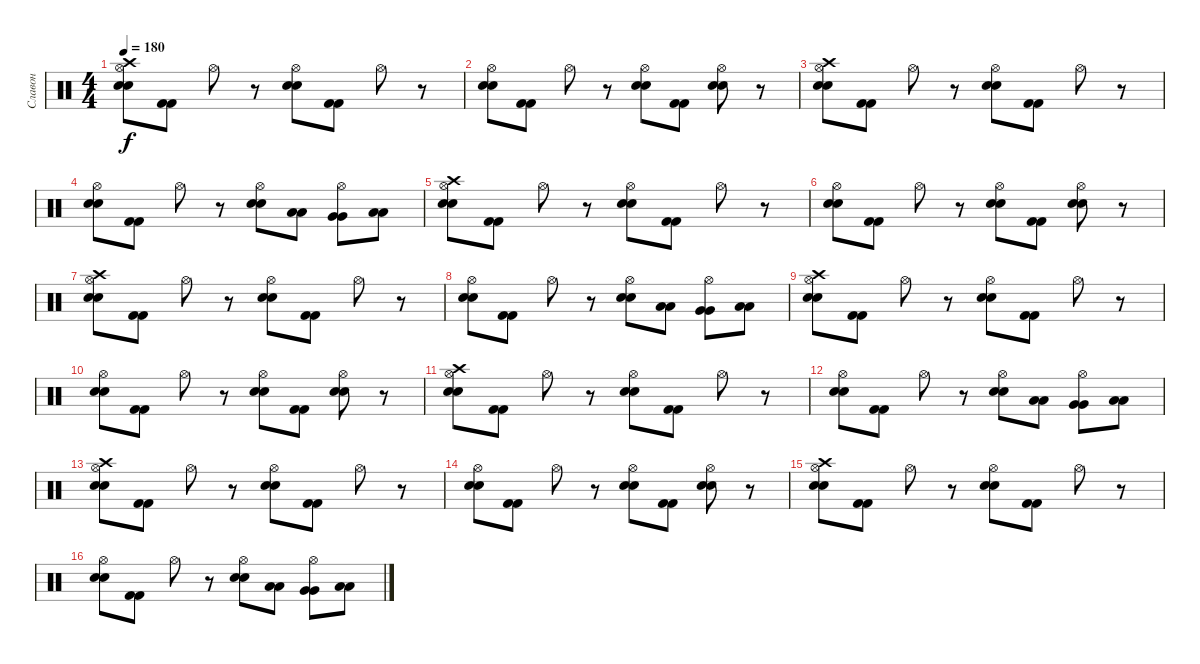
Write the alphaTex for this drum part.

\track ("Славон" "Славон") {instrument percussion}
\staff {score}
\articulation defaults
\ts (4 4)
\tempo 180
\clef neutral
\ks c
("Hi-Hat (open)" "Electric Snare (hit)" "Electric Snare (hit)" "Crash high (hit)").8{dy f} ("Kick (hit) 2" "Kick (hit) 2").8 "Hi-Hat (open)".8 r.8 ("Hi-Hat (open)" "Electric Snare (hit)" "Electric Snare (hit)").8 ("Kick (hit) 2" "Kick (hit) 2").8 "Hi-Hat (open)".8 r.8 |
("Hi-Hat (open)" "Electric Snare (hit)" "Electric Snare (hit)").8 ("Kick (hit) 2" "Kick (hit) 2").8 "Hi-Hat (open)".8 r.8 ("Hi-Hat (open)" "Electric Snare (hit)" "Electric Snare (hit)").8 ("Kick (hit) 2" "Kick (hit) 2").8 ("Hi-Hat (open)" "Electric Snare (hit)" "Electric Snare (hit)").8 r.8 |
("Hi-Hat (open)" "Electric Snare (hit)" "Electric Snare (hit)" "Crash high (hit)").8 ("Kick (hit) 2" "Kick (hit) 2").8 "Hi-Hat (open)".8 r.8 ("Hi-Hat (open)" "Electric Snare (hit)" "Electric Snare (hit)").8 ("Kick (hit) 2" "Kick (hit) 2").8 "Hi-Hat (open)".8 r.8 |
("Hi-Hat (open)" "Electric Snare (hit)" "Electric Snare (hit)").8 ("Kick (hit) 2" "Kick (hit) 2").8 "Hi-Hat (open)".8 r.8 ("Hi-Hat (open)" "Electric Snare (hit)" "Electric Snare (hit)").8 ("Low Tom (hit)" "Low Tom (hit)").8 ("Hi-Hat (open)" "Very Low Tom (hit)" "Very Low Tom (hit)").8 ("Low Floor Tom (hit)" "Low Floor Tom (hit)").8 |
("Hi-Hat (open)" "Electric Snare (hit)" "Electric Snare (hit)" "Crash high (hit)").8 ("Kick (hit) 2" "Kick (hit) 2").8 "Hi-Hat (open)".8 r.8 ("Hi-Hat (open)" "Electric Snare (hit)" "Electric Snare (hit)").8 ("Kick (hit) 2" "Kick (hit) 2").8 "Hi-Hat (open)".8 r.8 |
("Hi-Hat (open)" "Electric Snare (hit)" "Electric Snare (hit)").8 ("Kick (hit) 2" "Kick (hit) 2").8 "Hi-Hat (open)".8 r.8 ("Hi-Hat (open)" "Electric Snare (hit)" "Electric Snare (hit)").8 ("Kick (hit) 2" "Kick (hit) 2").8 ("Hi-Hat (open)" "Electric Snare (hit)" "Electric Snare (hit)").8 r.8 |
("Hi-Hat (open)" "Electric Snare (hit)" "Electric Snare (hit)" "Crash high (hit)").8 ("Kick (hit) 2" "Kick (hit) 2").8 "Hi-Hat (open)".8 r.8 ("Hi-Hat (open)" "Electric Snare (hit)" "Electric Snare (hit)").8 ("Kick (hit) 2" "Kick (hit) 2").8 "Hi-Hat (open)".8 r.8 |
("Hi-Hat (open)" "Electric Snare (hit)" "Electric Snare (hit)").8 ("Kick (hit) 2" "Kick (hit) 2").8 "Hi-Hat (open)".8 r.8 ("Hi-Hat (open)" "Electric Snare (hit)" "Electric Snare (hit)").8 ("Low Tom (hit)" "Low Tom (hit)").8 ("Hi-Hat (open)" "Very Low Tom (hit)" "Very Low Tom (hit)").8 ("Low Floor Tom (hit)" "Low Floor Tom (hit)").8 |
("Hi-Hat (open)" "Electric Snare (hit)" "Electric Snare (hit)" "Crash high (hit)").8 ("Kick (hit) 2" "Kick (hit) 2").8 "Hi-Hat (open)".8 r.8 ("Hi-Hat (open)" "Electric Snare (hit)" "Electric Snare (hit)").8 ("Kick (hit) 2" "Kick (hit) 2").8 "Hi-Hat (open)".8 r.8 |
("Hi-Hat (open)" "Electric Snare (hit)" "Electric Snare (hit)").8 ("Kick (hit) 2" "Kick (hit) 2").8 "Hi-Hat (open)".8 r.8 ("Hi-Hat (open)" "Electric Snare (hit)" "Electric Snare (hit)").8 ("Kick (hit) 2" "Kick (hit) 2").8 ("Hi-Hat (open)" "Electric Snare (hit)" "Electric Snare (hit)").8 r.8 |
("Hi-Hat (open)" "Electric Snare (hit)" "Electric Snare (hit)" "Crash high (hit)").8 ("Kick (hit) 2" "Kick (hit) 2").8 "Hi-Hat (open)".8 r.8 ("Hi-Hat (open)" "Electric Snare (hit)" "Electric Snare (hit)").8 ("Kick (hit) 2" "Kick (hit) 2").8 "Hi-Hat (open)".8 r.8 |
("Hi-Hat (open)" "Electric Snare (hit)" "Electric Snare (hit)").8 ("Kick (hit) 2" "Kick (hit) 2").8 "Hi-Hat (open)".8 r.8 ("Hi-Hat (open)" "Electric Snare (hit)" "Electric Snare (hit)").8 ("Low Tom (hit)" "Low Tom (hit)").8 ("Hi-Hat (open)" "Very Low Tom (hit)" "Very Low Tom (hit)").8 ("Low Floor Tom (hit)" "Low Floor Tom (hit)").8 |
("Hi-Hat (open)" "Electric Snare (hit)" "Electric Snare (hit)" "Crash high (hit)").8 ("Kick (hit) 2" "Kick (hit) 2").8 "Hi-Hat (open)".8 r.8 ("Hi-Hat (open)" "Electric Snare (hit)" "Electric Snare (hit)").8 ("Kick (hit) 2" "Kick (hit) 2").8 "Hi-Hat (open)".8 r.8 |
("Hi-Hat (open)" "Electric Snare (hit)" "Electric Snare (hit)").8 ("Kick (hit) 2" "Kick (hit) 2").8 "Hi-Hat (open)".8 r.8 ("Hi-Hat (open)" "Electric Snare (hit)" "Electric Snare (hit)").8 ("Kick (hit) 2" "Kick (hit) 2").8 ("Hi-Hat (open)" "Electric Snare (hit)" "Electric Snare (hit)").8 r.8 |
("Hi-Hat (open)" "Electric Snare (hit)" "Electric Snare (hit)" "Crash high (hit)").8 ("Kick (hit) 2" "Kick (hit) 2").8 "Hi-Hat (open)".8 r.8 ("Hi-Hat (open)" "Electric Snare (hit)" "Electric Snare (hit)").8 ("Kick (hit) 2" "Kick (hit) 2").8 "Hi-Hat (open)".8 r.8 |
("Hi-Hat (open)" "Electric Snare (hit)" "Electric Snare (hit)").8 ("Kick (hit) 2" "Kick (hit) 2").8 "Hi-Hat (open)".8 r.8 ("Hi-Hat (open)" "Electric Snare (hit)" "Electric Snare (hit)").8 ("Low Tom (hit)" "Low Tom (hit)").8 ("Hi-Hat (open)" "Very Low Tom (hit)" "Very Low Tom (hit)").8 ("Low Floor Tom (hit)" "Low Floor Tom (hit)").8
